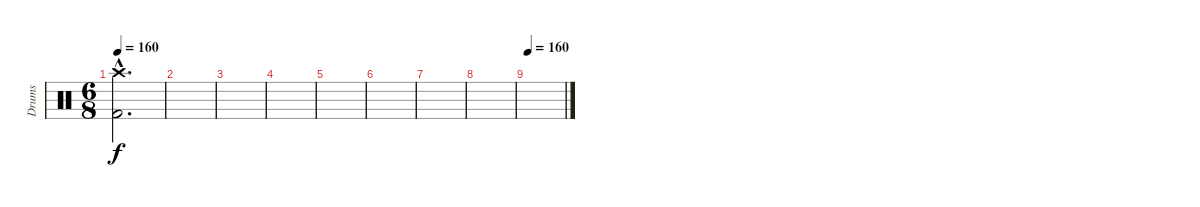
\track ("Drums" "Drums") {instrument percussion}
\staff {score}
\articulation defaults
\ts (6 8)
\tempo 160
\clef neutral
\ks c
("Crash high (hit)"{hac} "Kick (hit) 2"{hac}).2{d dy f} |
|
|
|
|
|
|
|
\tempo 160
